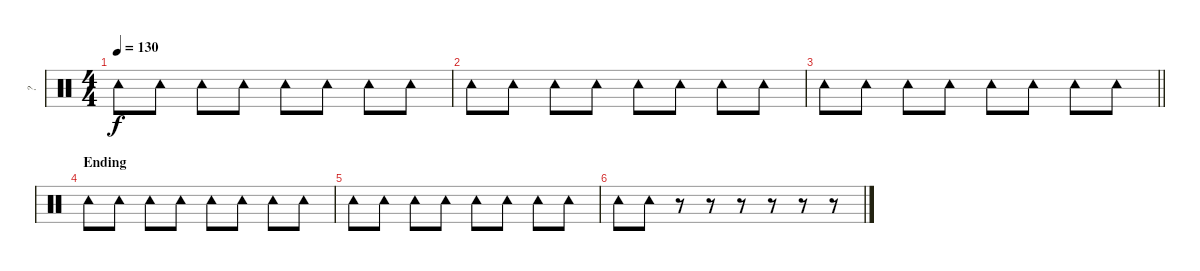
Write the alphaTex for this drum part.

\track ("?" "?") {instrument percussion}
\staff {score}
\articulation defaults
\ts (4 4)
\tempo 130
\clef neutral
\ks c "Tambourine (hit)".8{dy f} "Tambourine (hit)".8 "Tambourine (hit)".8 "Tambourine (hit)".8 "Tambourine (hit)".8 "Tambourine (hit)".8 "Tambourine (hit)".8 "Tambourine (hit)".8
|
"Tambourine (hit)".8 "Tambourine (hit)".8 "Tambourine (hit)".8 "Tambourine (hit)".8 "Tambourine (hit)".8 "Tambourine (hit)".8 "Tambourine (hit)".8 "Tambourine (hit)".8 |
\barLineRight lightlight "Tambourine (hit)".8 "Tambourine (hit)".8 "Tambourine (hit)".8 "Tambourine (hit)".8 "Tambourine (hit)".8 "Tambourine (hit)".8 "Tambourine (hit)".8 "Tambourine (hit)".8
|
\section ("" "Ending")
"Tambourine (hit)".8 "Tambourine (hit)".8 "Tambourine (hit)".8 "Tambourine (hit)".8 "Tambourine (hit)".8 "Tambourine (hit)".8 "Tambourine (hit)".8 "Tambourine (hit)".8 |
"Tambourine (hit)".8 "Tambourine (hit)".8 "Tambourine (hit)".8 "Tambourine (hit)".8 "Tambourine (hit)".8 "Tambourine (hit)".8 "Tambourine (hit)".8 "Tambourine (hit)".8 |
"Tambourine (hit)".8 "Tambourine (hit)".8 r.8 r.8 r.8 r.8 r.8 r.8
